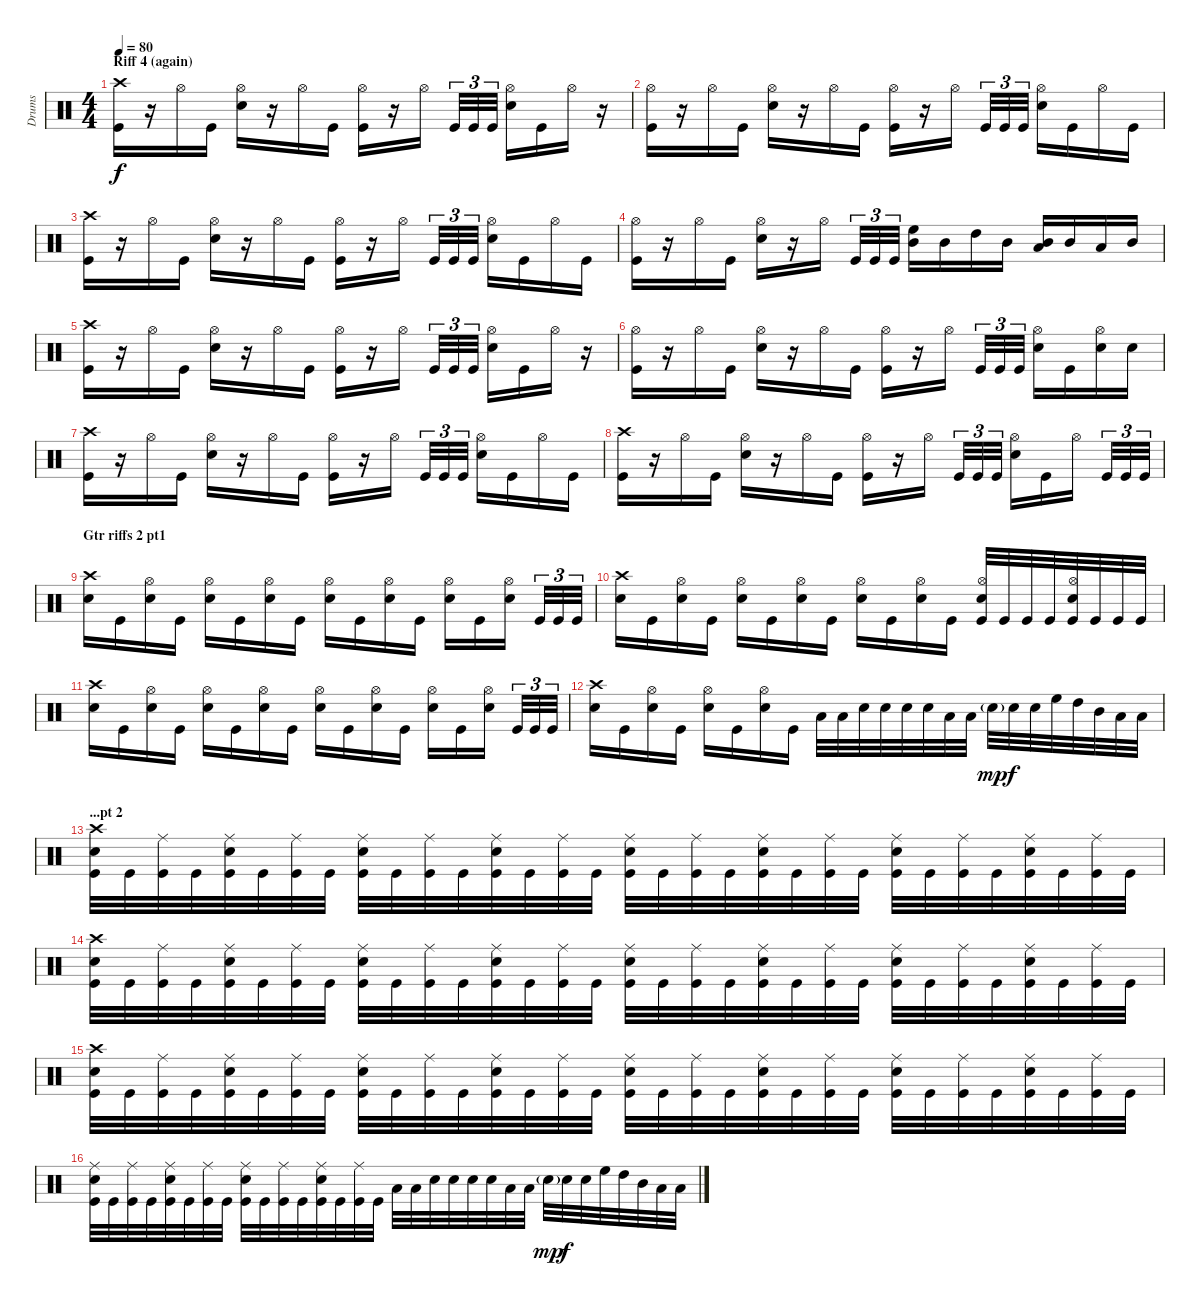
\track ("Drums" "Drums") {instrument percussion}
\staff {score}
\articulation defaults
\ts (4 4)
\section ("" "Riff 4 (again)")
\tempo 80
\clef neutral
\ks c
("Crash high (hit)" "Kick (hit)").16{dy f} r.16 "Hi-Hat (open)".16 "Kick (hit)".16 ("Hi-Hat (open)" "Electric Snare (hit)").16 r.16 "Hi-Hat (open)".16 "Kick (hit)".16 ("Hi-Hat (open)" "Kick (hit)").16 r.16 "Hi-Hat (open)".16 "Kick (hit)".32{tu (3 2)} "Kick (hit)".32{tu (3 2)} "Kick (hit)".32{tu (3 2)} ("Hi-Hat (open)" "Electric Snare (hit)").16 "Kick (hit)".16 "Hi-Hat (open)".16 r.16 |
("Hi-Hat (open)" "Kick (hit)").16 r.16 "Hi-Hat (open)".16 "Kick (hit)".16 ("Hi-Hat (open)" "Electric Snare (hit)").16 r.16 "Hi-Hat (open)".16 "Kick (hit)".16 ("Hi-Hat (open)" "Kick (hit)").16 r.16 "Hi-Hat (open)".16 "Kick (hit)".32{tu (3 2)} "Kick (hit)".32{tu (3 2)} "Kick (hit)".32{tu (3 2)} ("Hi-Hat (open)" "Electric Snare (hit)").16 "Kick (hit)".16 "Hi-Hat (open)".16 "Kick (hit)".16 |
("Crash high (hit)" "Kick (hit)").16 r.16 "Hi-Hat (open)".16 "Kick (hit)".16 ("Hi-Hat (open)" "Electric Snare (hit)").16 r.16 "Hi-Hat (open)".16 "Kick (hit)".16 ("Hi-Hat (open)" "Kick (hit)").16 r.16 "Hi-Hat (open)".16 "Kick (hit)".32{tu (3 2)} "Kick (hit)".32{tu (3 2)} "Kick (hit)".32{tu (3 2)} ("Hi-Hat (open)" "Electric Snare (hit)").16 "Kick (hit)".16 "Hi-Hat (open)".16 "Kick (hit)".16 |
("Hi-Hat (open)" "Kick (hit)").16 r.16 "Hi-Hat (open)".16 "Kick (hit)".16 ("Hi-Hat (open)" "Electric Snare (hit)").16 r.16 "Hi-Hat (open)".16 "Kick (hit)".32{tu (3 2)} "Kick (hit)".32{tu (3 2)} "Kick (hit)".32{tu (3 2)} ("High Floor Tom (hit)" "Mid Tom (hit)").16 "Mid Tom (hit)".16 "High Tom (hit)".16 "Mid Tom (hit)".16 ("Mid Tom (hit)" "Low Tom (hit)").16 "Mid Tom (hit)".16 "Low Tom (hit)".16 "Mid Tom (hit)".16 |
("Crash high (hit)" "Kick (hit)").16 r.16 "Hi-Hat (open)".16 "Kick (hit)".16 ("Hi-Hat (open)" "Electric Snare (hit)").16 r.16 "Hi-Hat (open)".16 "Kick (hit)".16 ("Hi-Hat (open)" "Kick (hit)").16 r.16 "Hi-Hat (open)".16 "Kick (hit)".32{tu (3 2)} "Kick (hit)".32{tu (3 2)} "Kick (hit)".32{tu (3 2)} ("Hi-Hat (open)" "Electric Snare (hit)").16 "Kick (hit)".16 "Hi-Hat (open)".16 r.16 |
("Hi-Hat (open)" "Kick (hit)").16 r.16 "Hi-Hat (open)".16 "Kick (hit)".16 ("Hi-Hat (open)" "Electric Snare (hit)").16 r.16 "Hi-Hat (open)".16 "Kick (hit)".16 ("Hi-Hat (open)" "Kick (hit)").16 r.16 "Hi-Hat (open)".16 "Kick (hit)".32{tu (3 2)} "Kick (hit)".32{tu (3 2)} "Kick (hit)".32{tu (3 2)} ("Hi-Hat (open)" "Electric Snare (hit)").16 "Kick (hit)".16 ("Hi-Hat (open)" "Electric Snare (hit)").16 "Electric Snare (hit)".16 |
("Crash high (hit)" "Kick (hit)").16 r.16 "Hi-Hat (open)".16 "Kick (hit)".16 ("Hi-Hat (open)" "Electric Snare (hit)").16 r.16 "Hi-Hat (open)".16 "Kick (hit)".16 ("Hi-Hat (open)" "Kick (hit)").16 r.16 "Hi-Hat (open)".16 "Kick (hit)".32{tu (3 2)} "Kick (hit)".32{tu (3 2)} "Kick (hit)".32{tu (3 2)} ("Hi-Hat (open)" "Electric Snare (hit)").16 "Kick (hit)".16 "Hi-Hat (open)".16 "Kick (hit)".16 |
("Crash high (hit)" "Kick (hit)").16 r.16 "Hi-Hat (open)".16 "Kick (hit)".16 ("Hi-Hat (open)" "Electric Snare (hit)").16 r.16 "Hi-Hat (open)".16 "Kick (hit)".16 ("Hi-Hat (open)" "Kick (hit)").16 r.16 "Hi-Hat (open)".16 "Kick (hit)".32{tu (3 2)} "Kick (hit)".32{tu (3 2)} "Kick (hit)".32{tu (3 2)} ("Hi-Hat (open)" "Electric Snare (hit)").16 "Kick (hit)".16 "Hi-Hat (open)".16 "Kick (hit)".32{tu (3 2)} "Kick (hit)".32{tu (3 2)} "Kick (hit)".32{tu (3 2)} |
\section ("" "Gtr riffs 2 pt1")
("Crash high (hit)" "Electric Snare (hit)").16 "Kick (hit)".16 ("Hi-Hat (open)" "Electric Snare (hit)").16 "Kick (hit)".16 ("Hi-Hat (open)" "Electric Snare (hit)").16 "Kick (hit)".16 ("Hi-Hat (open)" "Electric Snare (hit)").16 "Kick (hit)".16 ("Hi-Hat (open)" "Electric Snare (hit)").16 "Kick (hit)".16 ("Hi-Hat (open)" "Electric Snare (hit)").16 "Kick (hit)".16 ("Hi-Hat (open)" "Electric Snare (hit)").16 "Kick (hit)".16 ("Hi-Hat (open)" "Electric Snare (hit)").16 "Kick (hit)".32{tu (3 2)} "Kick (hit)".32{tu (3 2)} "Kick (hit)".32{tu (3 2)} |
("Crash high (hit)" "Electric Snare (hit)").16 "Kick (hit)".16 ("Hi-Hat (open)" "Electric Snare (hit)").16 "Kick (hit)".16 ("Hi-Hat (open)" "Electric Snare (hit)").16 "Kick (hit)".16 ("Hi-Hat (open)" "Electric Snare (hit)").16 "Kick (hit)".16 ("Hi-Hat (open)" "Electric Snare (hit)").16 "Kick (hit)".16 ("Hi-Hat (open)" "Electric Snare (hit)").16 "Kick (hit)".16 ("Hi-Hat (open)" "Electric Snare (hit)" "Kick (hit)").32 "Kick (hit)".32 "Kick (hit)".32 "Kick (hit)".32 ("Hi-Hat (open)" "Electric Snare (hit)" "Kick (hit)").32 "Kick (hit)".32 "Kick (hit)".32 "Kick (hit)".32 |
("Crash high (hit)" "Electric Snare (hit)").16 "Kick (hit)".16 ("Hi-Hat (open)" "Electric Snare (hit)").16 "Kick (hit)".16 ("Hi-Hat (open)" "Electric Snare (hit)").16 "Kick (hit)".16 ("Hi-Hat (open)" "Electric Snare (hit)").16 "Kick (hit)".16 ("Hi-Hat (open)" "Electric Snare (hit)").16 "Kick (hit)".16 ("Hi-Hat (open)" "Electric Snare (hit)").16 "Kick (hit)".16 ("Hi-Hat (open)" "Electric Snare (hit)").16 "Kick (hit)".16 ("Hi-Hat (open)" "Electric Snare (hit)").16 "Kick (hit)".32{tu (3 2)} "Kick (hit)".32{tu (3 2)} "Kick (hit)".32{tu (3 2)} |
("Crash high (hit)" "Electric Snare (hit)").16 "Kick (hit)".16 ("Hi-Hat (open)" "Electric Snare (hit)").16 "Kick (hit)".16 ("Hi-Hat (open)" "Electric Snare (hit)").16 "Kick (hit)".16 ("Hi-Hat (open)" "Electric Snare (hit)").16 "Kick (hit)".16 "Low Tom (hit)".32 "Low Tom (hit)".32 "Electric Snare (hit)".32 "Electric Snare (hit)".32 "Electric Snare (hit)".32 "Electric Snare (hit)".32 "Low Tom (hit)".32 "Low Tom (hit)".32 "Electric Snare (hit)"{g}.32{dy mp} "Electric Snare (hit)".32{dy f} "Electric Snare (hit)".32 "High Floor Tom (hit)".32 "High Tom (hit)".32 "Mid Tom (hit)".32 "Low Tom (hit)".32 "Low Floor Tom (hit)".32 |
\section ("" "...pt 2")
("Crash high (hit)" "Electric Snare (hit)" "Kick (hit)").32 "Kick (hit)".32 ("Ride (middle)" "Kick (hit)").32 "Kick (hit)".32 ("Ride (middle)" "Electric Snare (hit)" "Kick (hit)").32 "Kick (hit)".32 ("Ride (middle)" "Kick (hit)").32 "Kick (hit)".32 ("Ride (middle)" "Electric Snare (hit)" "Kick (hit)").32 "Kick (hit)".32 ("Ride (middle)" "Kick (hit)").32 "Kick (hit)".32 ("Ride (middle)" "Electric Snare (hit)" "Kick (hit)").32 "Kick (hit)".32 ("Ride (middle)" "Kick (hit)").32 "Kick (hit)".32 ("Ride (middle)" "Electric Snare (hit)" "Kick (hit)").32 "Kick (hit)".32 ("Ride (middle)" "Kick (hit)").32 "Kick (hit)".32 ("Ride (middle)" "Electric Snare (hit)" "Kick (hit)").32 "Kick (hit)".32 ("Ride (middle)" "Kick (hit)").32 "Kick (hit)".32 ("Ride (middle)" "Electric Snare (hit)" "Kick (hit)").32 "Kick (hit)".32 ("Ride (middle)" "Kick (hit)").32 "Kick (hit)".32 ("Ride (middle)" "Electric Snare (hit)" "Kick (hit)").32 "Kick (hit)".32 ("Ride (middle)" "Kick (hit)").32 "Kick (hit)".32 |
("Crash high (hit)" "Electric Snare (hit)" "Kick (hit)").32 "Kick (hit)".32 ("Ride (middle)" "Kick (hit)").32 "Kick (hit)".32 ("Ride (middle)" "Electric Snare (hit)" "Kick (hit)").32 "Kick (hit)".32 ("Ride (middle)" "Kick (hit)").32 "Kick (hit)".32 ("Ride (middle)" "Electric Snare (hit)" "Kick (hit)").32 "Kick (hit)".32 ("Ride (middle)" "Kick (hit)").32 "Kick (hit)".32 ("Ride (middle)" "Electric Snare (hit)" "Kick (hit)").32 "Kick (hit)".32 ("Ride (middle)" "Kick (hit)").32 "Kick (hit)".32 ("Ride (middle)" "Electric Snare (hit)" "Kick (hit)").32 "Kick (hit)".32 ("Ride (middle)" "Kick (hit)").32 "Kick (hit)".32 ("Ride (middle)" "Electric Snare (hit)" "Kick (hit)").32 "Kick (hit)".32 ("Ride (middle)" "Kick (hit)").32 "Kick (hit)".32 ("Ride (middle)" "Electric Snare (hit)" "Kick (hit)").32 "Kick (hit)".32 ("Ride (middle)" "Kick (hit)").32 "Kick (hit)".32 ("Ride (middle)" "Electric Snare (hit)" "Kick (hit)").32 "Kick (hit)".32 ("Ride (middle)" "Kick (hit)").32 "Kick (hit)".32 |
("Crash high (hit)" "Electric Snare (hit)" "Kick (hit)").32 "Kick (hit)".32 ("Ride (middle)" "Kick (hit)").32 "Kick (hit)".32 ("Ride (middle)" "Electric Snare (hit)" "Kick (hit)").32 "Kick (hit)".32 ("Ride (middle)" "Kick (hit)").32 "Kick (hit)".32 ("Ride (middle)" "Electric Snare (hit)" "Kick (hit)").32 "Kick (hit)".32 ("Ride (middle)" "Kick (hit)").32 "Kick (hit)".32 ("Ride (middle)" "Electric Snare (hit)" "Kick (hit)").32 "Kick (hit)".32 ("Ride (middle)" "Kick (hit)").32 "Kick (hit)".32 ("Ride (middle)" "Electric Snare (hit)" "Kick (hit)").32 "Kick (hit)".32 ("Ride (middle)" "Kick (hit)").32 "Kick (hit)".32 ("Ride (middle)" "Electric Snare (hit)" "Kick (hit)").32 "Kick (hit)".32 ("Ride (middle)" "Kick (hit)").32 "Kick (hit)".32 ("Ride (middle)" "Electric Snare (hit)" "Kick (hit)").32 "Kick (hit)".32 ("Ride (middle)" "Kick (hit)").32 "Kick (hit)".32 ("Ride (middle)" "Electric Snare (hit)" "Kick (hit)").32 "Kick (hit)".32 ("Ride (middle)" "Kick (hit)").32 "Kick (hit)".32 |
("Ride (middle)" "Electric Snare (hit)" "Kick (hit)").32 "Kick (hit)".32 ("Ride (middle)" "Kick (hit)").32 "Kick (hit)".32 ("Ride (middle)" "Electric Snare (hit)" "Kick (hit)").32 "Kick (hit)".32 ("Ride (middle)" "Kick (hit)").32 "Kick (hit)".32 ("Ride (middle)" "Electric Snare (hit)" "Kick (hit)").32 "Kick (hit)".32 ("Ride (middle)" "Kick (hit)").32 "Kick (hit)".32 ("Ride (middle)" "Electric Snare (hit)" "Kick (hit)").32 "Kick (hit)".32 ("Ride (middle)" "Kick (hit)").32 "Kick (hit)".32 "Low Tom (hit)".32 "Low Tom (hit)".32 "Electric Snare (hit)".32 "Electric Snare (hit)".32 "Electric Snare (hit)".32 "Electric Snare (hit)".32 "Low Tom (hit)".32 "Low Tom (hit)".32 "Electric Snare (hit)"{g}.32{dy mp} "Electric Snare (hit)".32{dy f} "Electric Snare (hit)".32 "High Floor Tom (hit)".32 "High Tom (hit)".32 "Mid Tom (hit)".32 "Low Tom (hit)".32 "Low Floor Tom (hit)".32
